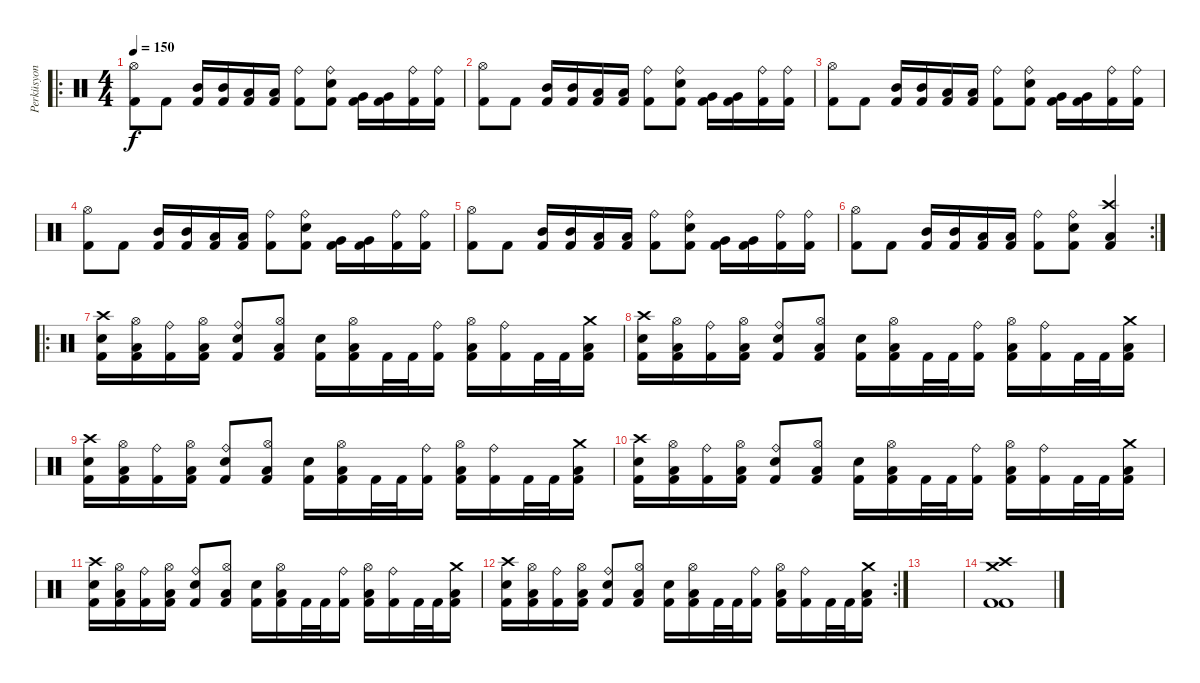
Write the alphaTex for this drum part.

\track ("Perküsyon" "Perküsyon") {instrument percussion}
\staff {score}
\articulation defaults
\ro
\ts (4 4)
\tempo 150
\clef neutral
\ks c
("Kick (hit) 2" "Hi-Hat (open)").8{dy f} "Kick (hit) 2".8 ("Kick (hit) 2" "Mid Tom (hit)").16 ("Kick (hit) 2" "Mid Tom (hit)").16 ("Kick (hit) 2" "Low Tom (hit)").16 ("Kick (hit) 2" "Low Tom (hit)").16 ("Kick (hit) 2" "Ride (bell)").8 ("Kick (hit) 2" "Snare (hit) 2" "Ride (bell)").8 ("Kick (hit) 2" "Very Low Tom (hit)").16 ("Kick (hit) 2" "Very Low Tom (hit)").16 ("Kick (hit) 2" "Ride (bell)").16 ("Kick (hit) 2" "Ride (bell)").16 |
("Kick (hit) 2" "Hi-Hat (open)").8 "Kick (hit) 2".8 ("Kick (hit) 2" "Mid Tom (hit)").16 ("Kick (hit) 2" "Mid Tom (hit)").16 ("Kick (hit) 2" "Low Tom (hit)").16 ("Kick (hit) 2" "Low Tom (hit)").16 ("Kick (hit) 2" "Ride (bell)").8 ("Kick (hit) 2" "Snare (hit) 2" "Ride (bell)").8 ("Kick (hit) 2" "Very Low Tom (hit)").16 ("Kick (hit) 2" "Very Low Tom (hit)").16 ("Kick (hit) 2" "Ride (bell)").16 ("Kick (hit) 2" "Ride (bell)").16 |
("Kick (hit) 2" "Hi-Hat (open)").8 "Kick (hit) 2".8 ("Kick (hit) 2" "Mid Tom (hit)").16 ("Kick (hit) 2" "Mid Tom (hit)").16 ("Kick (hit) 2" "Low Tom (hit)").16 ("Kick (hit) 2" "Low Tom (hit)").16 ("Kick (hit) 2" "Ride (bell)").8 ("Kick (hit) 2" "Snare (hit) 2" "Ride (bell)").8 ("Kick (hit) 2" "Very Low Tom (hit)").16 ("Kick (hit) 2" "Very Low Tom (hit)").16 ("Kick (hit) 2" "Ride (bell)").16 ("Kick (hit) 2" "Ride (bell)").16 |
("Kick (hit) 2" "Hi-Hat (open)").8 "Kick (hit) 2".8 ("Kick (hit) 2" "Mid Tom (hit)").16 ("Kick (hit) 2" "Mid Tom (hit)").16 ("Kick (hit) 2" "Low Tom (hit)").16 ("Kick (hit) 2" "Low Tom (hit)").16 ("Kick (hit) 2" "Ride (bell)").8 ("Kick (hit) 2" "Snare (hit) 2" "Ride (bell)").8 ("Kick (hit) 2" "Very Low Tom (hit)").16 ("Kick (hit) 2" "Very Low Tom (hit)").16 ("Kick (hit) 2" "Ride (bell)").16 ("Kick (hit) 2" "Ride (bell)").16 |
("Kick (hit) 2" "Hi-Hat (open)").8 "Kick (hit) 2".8 ("Kick (hit) 2" "Mid Tom (hit)").16 ("Kick (hit) 2" "Mid Tom (hit)").16 ("Kick (hit) 2" "Low Tom (hit)").16 ("Kick (hit) 2" "Low Tom (hit)").16 ("Kick (hit) 2" "Ride (bell)").8 ("Kick (hit) 2" "Snare (hit) 2" "Ride (bell)").8 ("Kick (hit) 2" "Very Low Tom (hit)").16 ("Kick (hit) 2" "Very Low Tom (hit)").16 ("Kick (hit) 2" "Ride (bell)").16 ("Kick (hit) 2" "Ride (bell)").16 |
\rc 2
("Kick (hit) 2" "Hi-Hat (open)").8 "Kick (hit) 2".8 ("Kick (hit) 2" "Mid Tom (hit)").16 ("Kick (hit) 2" "Mid Tom (hit)").16 ("Kick (hit) 2" "Low Tom (hit)").16 ("Kick (hit) 2" "Low Tom (hit)").16 ("Kick (hit) 2" "Ride (bell)").8 ("Kick (hit) 2" "Snare (hit) 2" "Ride (bell)").8 ("Kick (hit) 2" "Crash high (hit)" "Low Floor Tom (hit)").4 |
\ro
("Kick (hit) 2" "Crash high (hit)" "Snare (hit) 2").16 ("Kick (hit) 2" "Hi-Hat (open)" "Low Tom (hit)").16 ("Kick (hit) 2" "Ride (bell)").16 ("Kick (hit) 2" "Hi-Hat (open)" "Low Tom (hit)").16 ("Kick (hit) 2" "Ride (bell)" "Snare (hit) 2").8 ("Kick (hit) 2" "Hi-Hat (open)" "Low Tom (hit)").8 ("Kick (hit) 2" "Snare (hit) 2").16 ("Kick (hit) 2" "Hi-Hat (open)" "Low Tom (hit)").16 "Kick (hit) 2".32 "Kick (hit) 2".32 ("Kick (hit) 2" "Ride (bell)").16 ("Kick (hit) 2" "Hi-Hat (open)" "Low Tom (hit)").16 ("Kick (hit) 2" "Ride (bell)").16 "Kick (hit) 2".32 "Kick (hit) 2".32 ("Kick (hit) 2" "Crash medium (hit)" "Low Tom (hit)").16 |
("Kick (hit) 2" "Crash high (hit)" "Snare (hit) 2").16 ("Kick (hit) 2" "Hi-Hat (open)" "Low Tom (hit)").16 ("Kick (hit) 2" "Ride (bell)").16 ("Kick (hit) 2" "Hi-Hat (open)" "Low Tom (hit)").16 ("Kick (hit) 2" "Ride (bell)" "Snare (hit) 2").8 ("Kick (hit) 2" "Hi-Hat (open)" "Low Tom (hit)").8 ("Kick (hit) 2" "Snare (hit) 2").16 ("Kick (hit) 2" "Hi-Hat (open)" "Low Tom (hit)").16 "Kick (hit) 2".32 "Kick (hit) 2".32 ("Kick (hit) 2" "Ride (bell)").16 ("Kick (hit) 2" "Hi-Hat (open)" "Low Tom (hit)").16 ("Kick (hit) 2" "Ride (bell)").16 "Kick (hit) 2".32 "Kick (hit) 2".32 ("Kick (hit) 2" "Crash medium (hit)" "Low Tom (hit)").16 |
("Kick (hit) 2" "Crash high (hit)" "Snare (hit) 2").16 ("Kick (hit) 2" "Hi-Hat (open)" "Low Tom (hit)").16 ("Kick (hit) 2" "Ride (bell)").16 ("Kick (hit) 2" "Hi-Hat (open)" "Low Tom (hit)").16 ("Kick (hit) 2" "Ride (bell)" "Snare (hit) 2").8 ("Kick (hit) 2" "Hi-Hat (open)" "Low Tom (hit)").8 ("Kick (hit) 2" "Snare (hit) 2").16 ("Kick (hit) 2" "Hi-Hat (open)" "Low Tom (hit)").16 "Kick (hit) 2".32 "Kick (hit) 2".32 ("Kick (hit) 2" "Ride (bell)").16 ("Kick (hit) 2" "Hi-Hat (open)" "Low Tom (hit)").16 ("Kick (hit) 2" "Ride (bell)").16 "Kick (hit) 2".32 "Kick (hit) 2".32 ("Kick (hit) 2" "Crash medium (hit)" "Low Tom (hit)").16 |
("Kick (hit) 2" "Crash high (hit)" "Snare (hit) 2").16 ("Kick (hit) 2" "Hi-Hat (open)" "Low Tom (hit)").16 ("Kick (hit) 2" "Ride (bell)").16 ("Kick (hit) 2" "Hi-Hat (open)" "Low Tom (hit)").16 ("Kick (hit) 2" "Ride (bell)" "Snare (hit) 2").8 ("Kick (hit) 2" "Hi-Hat (open)" "Low Tom (hit)").8 ("Kick (hit) 2" "Snare (hit) 2").16 ("Kick (hit) 2" "Hi-Hat (open)" "Low Tom (hit)").16 "Kick (hit) 2".32 "Kick (hit) 2".32 ("Kick (hit) 2" "Ride (bell)").16 ("Kick (hit) 2" "Hi-Hat (open)" "Low Tom (hit)").16 ("Kick (hit) 2" "Ride (bell)").16 "Kick (hit) 2".32 "Kick (hit) 2".32 ("Kick (hit) 2" "Crash medium (hit)" "Low Tom (hit)").16 |
("Kick (hit) 2" "Crash high (hit)" "Snare (hit) 2").16 ("Kick (hit) 2" "Hi-Hat (open)" "Low Tom (hit)").16 ("Kick (hit) 2" "Ride (bell)").16 ("Kick (hit) 2" "Hi-Hat (open)" "Low Tom (hit)").16 ("Kick (hit) 2" "Ride (bell)" "Snare (hit) 2").8 ("Kick (hit) 2" "Hi-Hat (open)" "Low Tom (hit)").8 ("Kick (hit) 2" "Snare (hit) 2").16 ("Kick (hit) 2" "Hi-Hat (open)" "Low Tom (hit)").16 "Kick (hit) 2".32 "Kick (hit) 2".32 ("Kick (hit) 2" "Ride (bell)").16 ("Kick (hit) 2" "Hi-Hat (open)" "Low Tom (hit)").16 ("Kick (hit) 2" "Ride (bell)").16 "Kick (hit) 2".32 "Kick (hit) 2".32 ("Kick (hit) 2" "Crash medium (hit)" "Low Tom (hit)").16 |
\rc 2
("Kick (hit) 2" "Crash high (hit)" "Snare (hit) 2").16 ("Kick (hit) 2" "Hi-Hat (open)" "Low Tom (hit)").16 ("Kick (hit) 2" "Ride (bell)").16 ("Kick (hit) 2" "Hi-Hat (open)" "Low Tom (hit)").16 ("Kick (hit) 2" "Ride (bell)" "Snare (hit) 2").8 ("Kick (hit) 2" "Hi-Hat (open)" "Low Tom (hit)").8 ("Kick (hit) 2" "Snare (hit) 2").16 ("Kick (hit) 2" "Hi-Hat (open)" "Low Tom (hit)").16 "Kick (hit) 2".32 "Kick (hit) 2".32 ("Kick (hit) 2" "Ride (bell)").16 ("Kick (hit) 2" "Hi-Hat (open)" "Low Tom (hit)").16 ("Kick (hit) 2" "Ride (bell)").16 "Kick (hit) 2".32 "Kick (hit) 2".32 ("Kick (hit) 2" "Crash medium (hit)" "Low Tom (hit)").16 |
|
("Kick (hit) 2" "Kick (hit) 2" "Crash medium (hit)" "Crash high (hit)").1
